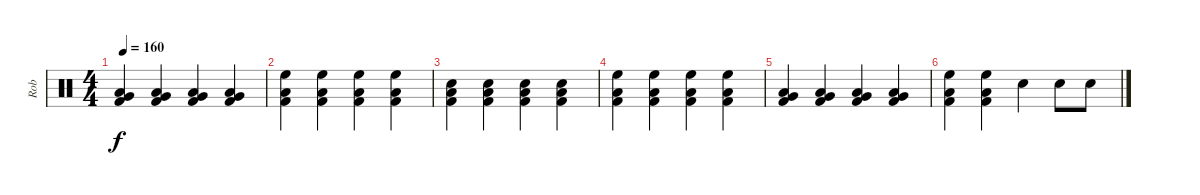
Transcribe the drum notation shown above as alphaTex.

\track ("Rob" "Rob") {instrument percussion}
\staff {score}
\articulation defaults
\ts (4 4)
\tempo 160
\clef neutral
\ks c
("Very Low Tom (hit)" "Low Tom (hit)" "Kick (hit) 2").4{dy f} ("Very Low Tom (hit)" "Low Tom (hit)" "Kick (hit) 2").4 ("Very Low Tom (hit)" "Low Tom (hit)" "Kick (hit) 2").4 ("Very Low Tom (hit)" "Low Tom (hit)" "Kick (hit) 2").4 |
("High Floor Tom (hit)" "Low Tom (hit)" "Kick (hit) 2").4 ("High Floor Tom (hit)" "Low Tom (hit)" "Kick (hit) 2").4 ("High Floor Tom (hit)" "Low Tom (hit)" "Kick (hit) 2").4 ("High Floor Tom (hit)" "Low Tom (hit)" "Kick (hit) 2").4 |
("Electric Snare (hit)" "Low Tom (hit)" "Kick (hit) 2").4 ("Electric Snare (hit)" "Low Tom (hit)" "Kick (hit) 2").4 ("Electric Snare (hit)" "Low Tom (hit)" "Kick (hit) 2").4 ("Electric Snare (hit)" "Low Tom (hit)" "Kick (hit) 2").4 |
("High Floor Tom (hit)" "Low Tom (hit)" "Kick (hit) 2").4 ("High Floor Tom (hit)" "Low Tom (hit)" "Kick (hit) 2").4 ("High Floor Tom (hit)" "Low Tom (hit)" "Kick (hit) 2").4 ("High Floor Tom (hit)" "Low Tom (hit)" "Kick (hit) 2").4 |
("Very Low Tom (hit)" "Low Tom (hit)" "Kick (hit) 2").4 ("Very Low Tom (hit)" "Low Tom (hit)" "Kick (hit) 2").4 ("Very Low Tom (hit)" "Low Tom (hit)" "Kick (hit) 2").4 ("Very Low Tom (hit)" "Low Tom (hit)" "Kick (hit) 2").4 |
("High Floor Tom (hit)" "Low Tom (hit)" "Kick (hit) 2").4 ("High Floor Tom (hit)" "Low Tom (hit)" "Kick (hit) 2").4 "Electric Snare (hit)".4 "Electric Snare (hit)".8 "Electric Snare (hit)".8
